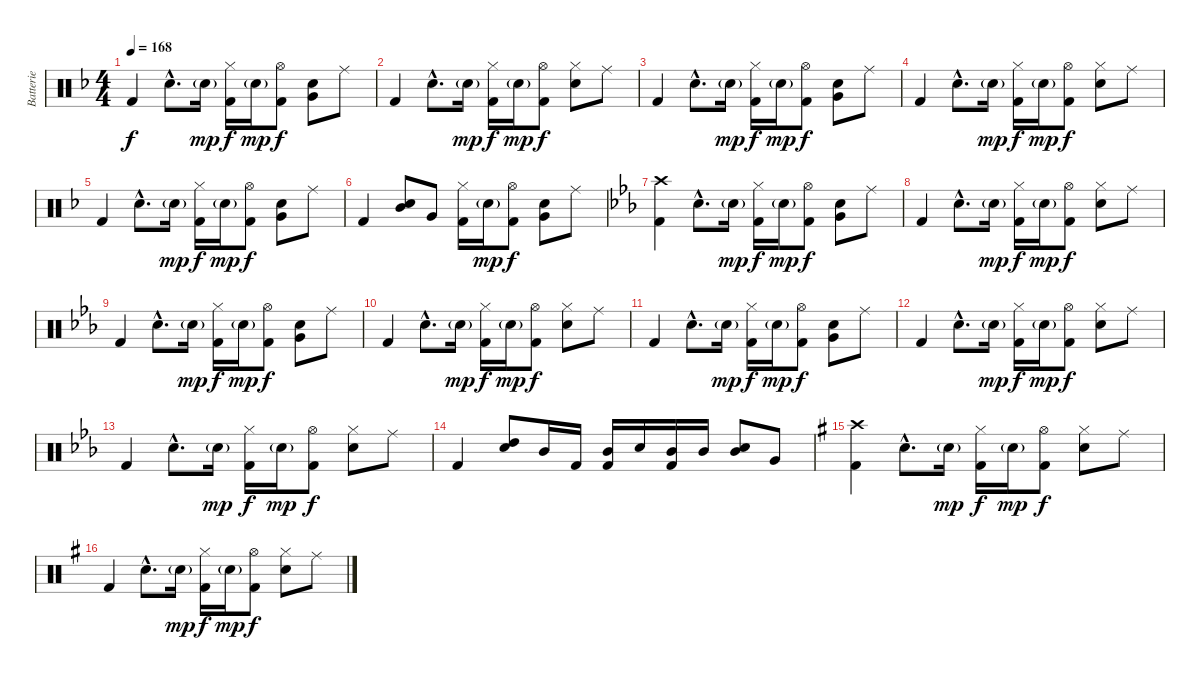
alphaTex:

\track ("Batterie" "Batterie") {instrument percussion}
\staff {score}
\articulation defaults
\ts (4 4)
\tempo 168
\clef neutral
\ks f "Kick (hit) 2".4{dy f} "Snare (hit) 2"{hac}.8{d} "Snare (hit) 2"{g}.16{dy mp}
("Hi-Hat (closed)" "Kick (hit) 2").16{dy f} "Snare (hit) 2"{g}.16{dy mp} ("Hi-Hat (open)" "Kick (hit) 2").8{dy f} ("Snare (hit) 2" "Very Low Tom (hit)").8 "Ride (middle)".8 |
"Kick (hit) 2".4 "Snare (hit) 2"{hac}.8{d} "Snare (hit) 2"{g}.16{dy mp} ("Hi-Hat (closed)" "Kick (hit) 2").16{dy f} "Snare (hit) 2"{g}.16{dy mp} ("Hi-Hat (open)" "Kick (hit) 2").8{dy f} ("Hi-Hat (closed)" "Snare (hit) 2").8 "Ride (middle)".8 |
"Kick (hit) 2".4 "Snare (hit) 2"{hac}.8{d} "Snare (hit) 2"{g}.16{dy mp} ("Hi-Hat (closed)" "Kick (hit) 2").16{dy f} "Snare (hit) 2"{g}.16{dy mp} ("Hi-Hat (open)" "Kick (hit) 2").8{dy f} ("Snare (hit) 2" "Very Low Tom (hit)").8 "Ride (middle)".8 |
"Kick (hit) 2".4 "Snare (hit) 2"{hac}.8{d} "Snare (hit) 2"{g}.16{dy mp} ("Hi-Hat (closed)" "Kick (hit) 2").16{dy f} "Snare (hit) 2"{g}.16{dy mp} ("Hi-Hat (open)" "Kick (hit) 2").8{dy f} ("Hi-Hat (closed)" "Snare (hit) 2").8 "Ride (middle)".8 |
"Kick (hit) 2".4 "Snare (hit) 2"{hac}.8{d} "Snare (hit) 2"{g}.16{dy mp} ("Hi-Hat (closed)" "Kick (hit) 2").16{dy f} "Snare (hit) 2"{g}.16{dy mp} ("Hi-Hat (open)" "Kick (hit) 2").8{dy f} ("Snare (hit) 2" "Very Low Tom (hit)").8 "Ride (middle)".8 |
"Kick (hit) 2".4 ("Mid Tom (hit)" "Snare (hit) 2").8 "Very Low Tom (hit)".8 ("Hi-Hat (closed)" "Kick (hit) 2").16 "Snare (hit) 2"{g}.16{dy mp} ("Hi-Hat (open)" "Kick (hit) 2").8{dy f} ("Snare (hit) 2" "Very Low Tom (hit)").8 "Ride (middle)".8 |
\ks eb
("Crash high (hit)" "Kick (hit) 2").4 "Snare (hit) 2"{hac}.8{d} "Snare (hit) 2"{g}.16{dy mp} ("Hi-Hat (closed)" "Kick (hit) 2").16{dy f} "Snare (hit) 2"{g}.16{dy mp} ("Hi-Hat (open)" "Kick (hit) 2").8{dy f} ("Snare (hit) 2" "Very Low Tom (hit)").8 "Ride (middle)".8 |
"Kick (hit) 2".4 "Snare (hit) 2"{hac}.8{d} "Snare (hit) 2"{g}.16{dy mp} ("Hi-Hat (closed)" "Kick (hit) 2").16{dy f} "Snare (hit) 2"{g}.16{dy mp} ("Hi-Hat (open)" "Kick (hit) 2").8{dy f} ("Hi-Hat (closed)" "Snare (hit) 2").8 "Ride (middle)".8 |
"Kick (hit) 2".4 "Snare (hit) 2"{hac}.8{d} "Snare (hit) 2"{g}.16{dy mp} ("Hi-Hat (closed)" "Kick (hit) 2").16{dy f} "Snare (hit) 2"{g}.16{dy mp} ("Hi-Hat (open)" "Kick (hit) 2").8{dy f} ("Snare (hit) 2" "Very Low Tom (hit)").8 "Ride (middle)".8 |
"Kick (hit) 2".4 "Snare (hit) 2"{hac}.8{d} "Snare (hit) 2"{g}.16{dy mp} ("Hi-Hat (closed)" "Kick (hit) 2").16{dy f} "Snare (hit) 2"{g}.16{dy mp} ("Hi-Hat (open)" "Kick (hit) 2").8{dy f} ("Hi-Hat (closed)" "Snare (hit) 2").8 "Ride (middle)".8 |
"Kick (hit) 2".4 "Snare (hit) 2"{hac}.8{d} "Snare (hit) 2"{g}.16{dy mp} ("Hi-Hat (closed)" "Kick (hit) 2").16{dy f} "Snare (hit) 2"{g}.16{dy mp} ("Hi-Hat (open)" "Kick (hit) 2").8{dy f} ("Snare (hit) 2" "Very Low Tom (hit)").8 "Ride (middle)".8 |
"Kick (hit) 2".4 "Snare (hit) 2"{hac}.8{d} "Snare (hit) 2"{g}.16{dy mp} ("Hi-Hat (closed)" "Kick (hit) 2").16{dy f} "Snare (hit) 2"{g}.16{dy mp} ("Hi-Hat (open)" "Kick (hit) 2").8{dy f} ("Hi-Hat (closed)" "Snare (hit) 2").8 "Ride (middle)".8 |
"Kick (hit) 2".4 "Snare (hit) 2"{hac}.8{d} "Snare (hit) 2"{g}.16{dy mp} ("Hi-Hat (closed)" "Kick (hit) 2").16{dy f} "Snare (hit) 2"{g}.16{dy mp} ("Hi-Hat (open)" "Kick (hit) 2").8{dy f} ("Hi-Hat (closed)" "Snare (hit) 2").8 "Ride (middle)".8 |
"Kick (hit) 2".4 ("High Tom (hit)" "Snare (hit) 2").8 "Mid Tom (hit)".16 "Kick (hit) 2".16 ("Mid Tom (hit)" "Kick (hit) 2").16 "Snare (hit) 2".16 ("Mid Tom (hit)" "Kick (hit) 2").16 "Mid Tom (hit)".16 ("Mid Tom (hit)" "Snare (hit) 2").8 "Very Low Tom (hit)".8 |
\ks g
("Crash high (hit)" "Kick (hit) 2").4 "Snare (hit) 2"{hac}.8{d} "Snare (hit) 2"{g}.16{dy mp} ("Hi-Hat (closed)" "Kick (hit) 2").16{dy f} "Snare (hit) 2"{g}.16{dy mp} ("Hi-Hat (open)" "Kick (hit) 2").8{dy f} ("Hi-Hat (closed)" "Snare (hit) 2").8 "Ride (middle)".8 |
"Kick (hit) 2".4 "Snare (hit) 2"{hac}.8{d} "Snare (hit) 2"{g}.16{dy mp} ("Hi-Hat (closed)" "Kick (hit) 2").16{dy f} "Snare (hit) 2"{g}.16{dy mp} ("Hi-Hat (open)" "Kick (hit) 2").8{dy f} ("Hi-Hat (closed)" "Snare (hit) 2").8 "Ride (middle)".8
